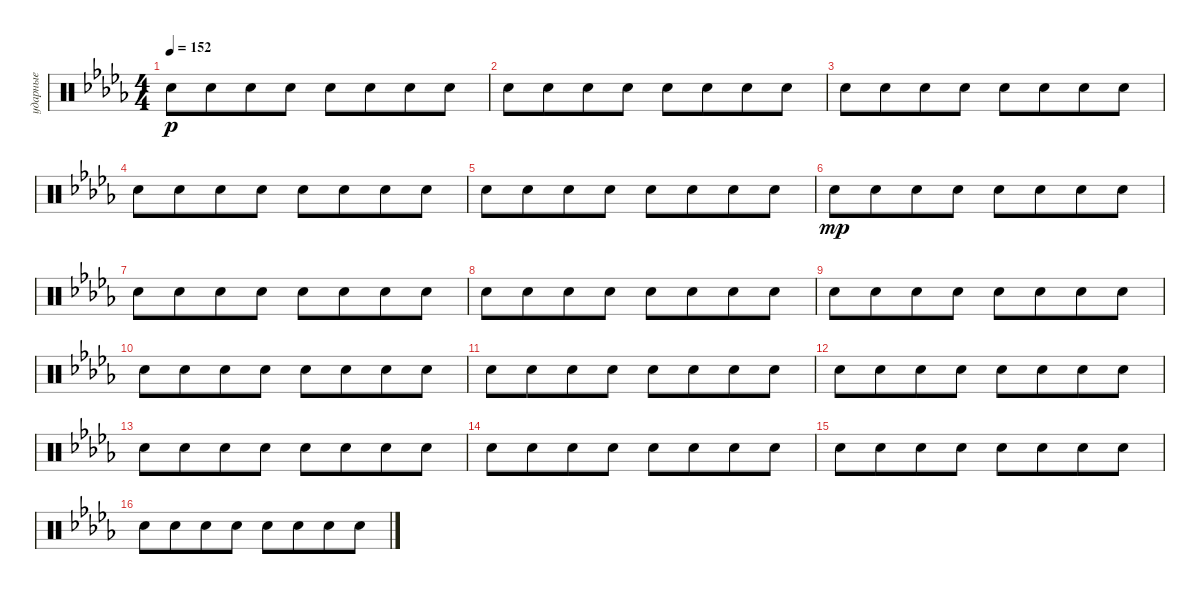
\track ("ударные" "ударные") {instrument percussion}
\staff {score}
\articulation defaults
\ts (4 4)
\tempo 152
\clef neutral
\ks bbminor "Snare (hit) 2".8{dy p} "Snare (hit) 2".8{beam merge} "Snare (hit) 2".8 "Snare (hit) 2".8 "Snare (hit) 2".8 "Snare (hit) 2".8{beam merge} "Snare (hit) 2".8 "Snare (hit) 2".8
|
"Snare (hit) 2".8 "Snare (hit) 2".8{beam merge} "Snare (hit) 2".8 "Snare (hit) 2".8 "Snare (hit) 2".8 "Snare (hit) 2".8{beam merge} "Snare (hit) 2".8 "Snare (hit) 2".8 |
"Snare (hit) 2".8 "Snare (hit) 2".8{beam merge} "Snare (hit) 2".8 "Snare (hit) 2".8 "Snare (hit) 2".8 "Snare (hit) 2".8{beam merge} "Snare (hit) 2".8 "Snare (hit) 2".8 |
"Snare (hit) 2".8 "Snare (hit) 2".8{beam merge} "Snare (hit) 2".8 "Snare (hit) 2".8 "Snare (hit) 2".8 "Snare (hit) 2".8{beam merge} "Snare (hit) 2".8 "Snare (hit) 2".8 |
"Snare (hit) 2".8 "Snare (hit) 2".8{beam merge} "Snare (hit) 2".8 "Snare (hit) 2".8 "Snare (hit) 2".8 "Snare (hit) 2".8{beam merge} "Snare (hit) 2".8 "Snare (hit) 2".8 |
"Snare (hit) 2".8{dy mp} "Snare (hit) 2".8{beam merge} "Snare (hit) 2".8 "Snare (hit) 2".8 "Snare (hit) 2".8 "Snare (hit) 2".8{beam merge} "Snare (hit) 2".8 "Snare (hit) 2".8 |
"Snare (hit) 2".8 "Snare (hit) 2".8{beam merge} "Snare (hit) 2".8 "Snare (hit) 2".8 "Snare (hit) 2".8 "Snare (hit) 2".8{beam merge} "Snare (hit) 2".8 "Snare (hit) 2".8 |
"Snare (hit) 2".8 "Snare (hit) 2".8{beam merge} "Snare (hit) 2".8 "Snare (hit) 2".8 "Snare (hit) 2".8 "Snare (hit) 2".8{beam merge} "Snare (hit) 2".8 "Snare (hit) 2".8 |
"Snare (hit) 2".8 "Snare (hit) 2".8{beam merge} "Snare (hit) 2".8 "Snare (hit) 2".8 "Snare (hit) 2".8 "Snare (hit) 2".8{beam merge} "Snare (hit) 2".8 "Snare (hit) 2".8 |
"Snare (hit) 2".8 "Snare (hit) 2".8{beam merge} "Snare (hit) 2".8 "Snare (hit) 2".8 "Snare (hit) 2".8 "Snare (hit) 2".8{beam merge} "Snare (hit) 2".8 "Snare (hit) 2".8 |
"Snare (hit) 2".8 "Snare (hit) 2".8{beam merge} "Snare (hit) 2".8 "Snare (hit) 2".8 "Snare (hit) 2".8 "Snare (hit) 2".8{beam merge} "Snare (hit) 2".8 "Snare (hit) 2".8 |
"Snare (hit) 2".8 "Snare (hit) 2".8{beam merge} "Snare (hit) 2".8 "Snare (hit) 2".8 "Snare (hit) 2".8 "Snare (hit) 2".8{beam merge} "Snare (hit) 2".8 "Snare (hit) 2".8 |
"Snare (hit) 2".8 "Snare (hit) 2".8{beam merge} "Snare (hit) 2".8 "Snare (hit) 2".8 "Snare (hit) 2".8 "Snare (hit) 2".8{beam merge} "Snare (hit) 2".8 "Snare (hit) 2".8 |
"Snare (hit) 2".8 "Snare (hit) 2".8{beam merge} "Snare (hit) 2".8 "Snare (hit) 2".8 "Snare (hit) 2".8 "Snare (hit) 2".8{beam merge} "Snare (hit) 2".8 "Snare (hit) 2".8 |
"Snare (hit) 2".8 "Snare (hit) 2".8{beam merge} "Snare (hit) 2".8 "Snare (hit) 2".8 "Snare (hit) 2".8 "Snare (hit) 2".8{beam merge} "Snare (hit) 2".8 "Snare (hit) 2".8 |
"Snare (hit) 2".8 "Snare (hit) 2".8{beam merge} "Snare (hit) 2".8 "Snare (hit) 2".8 "Snare (hit) 2".8 "Snare (hit) 2".8{beam merge} "Snare (hit) 2".8 "Snare (hit) 2".8
